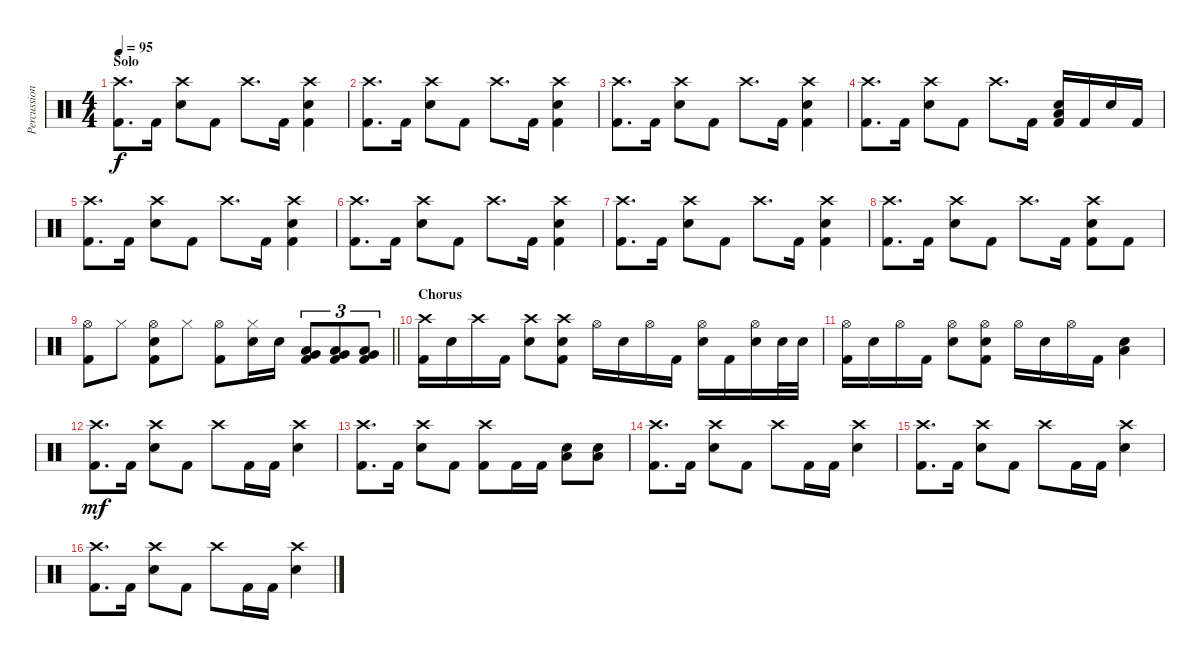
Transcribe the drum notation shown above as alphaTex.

\track ("Percussion" "Percussion") {instrument percussion}
\staff {score}
\articulation defaults
\ts (4 4)
\section ("" "Solo")
\tempo 95
\clef neutral
\ks c
("Crash high (hit)" "Kick (hit) 2").8{d dy f} "Kick (hit) 2".16 ("Crash high (hit)" "Snare (hit) 2").8 "Kick (hit) 2".8 "Crash high (hit)".8{d} "Kick (hit) 2".16 ("Crash high (hit)" "Snare (hit) 2" "Kick (hit) 2").4 |
("Crash high (hit)" "Kick (hit) 2").8{d} "Kick (hit) 2".16 ("Crash high (hit)" "Snare (hit) 2").8 "Kick (hit) 2".8 "Crash high (hit)".8{d} "Kick (hit) 2".16 ("Crash high (hit)" "Snare (hit) 2" "Kick (hit) 2").4 |
("Crash high (hit)" "Kick (hit) 2").8{d} "Kick (hit) 2".16 ("Crash high (hit)" "Snare (hit) 2").8 "Kick (hit) 2".8 "Crash high (hit)".8{d} "Kick (hit) 2".16 ("Crash high (hit)" "Snare (hit) 2" "Kick (hit) 2").4 |
("Crash high (hit)" "Kick (hit) 2").8{d} "Kick (hit) 2".16 ("Crash high (hit)" "Snare (hit) 2").8 "Kick (hit) 2".8 "Crash high (hit)".8{d} "Kick (hit) 2".16 ("Low Floor Tom (hit)" "Snare (hit) 2" "Kick (hit) 2").16 "Kick (hit) 2".16 "Snare (hit) 2".16 "Kick (hit) 2".16 |
("Crash high (hit)" "Kick (hit) 2").8{d} "Kick (hit) 2".16 ("Crash high (hit)" "Snare (hit) 2").8 "Kick (hit) 2".8 "Crash high (hit)".8{d} "Kick (hit) 2".16 ("Crash high (hit)" "Snare (hit) 2" "Kick (hit) 2").4 |
("Crash high (hit)" "Kick (hit) 2").8{d} "Kick (hit) 2".16 ("Crash high (hit)" "Snare (hit) 2").8 "Kick (hit) 2".8 "Crash high (hit)".8{d} "Kick (hit) 2".16 ("Crash high (hit)" "Snare (hit) 2" "Kick (hit) 2").4 |
("Crash high (hit)" "Kick (hit) 2").8{d} "Kick (hit) 2".16 ("Crash high (hit)" "Snare (hit) 2").8 "Kick (hit) 2".8 "Crash high (hit)".8{d} "Kick (hit) 2".16 ("Crash high (hit)" "Snare (hit) 2" "Kick (hit) 2").4 |
("Crash high (hit)" "Kick (hit) 2").8{d} "Kick (hit) 2".16 ("Crash high (hit)" "Snare (hit) 2").8 "Kick (hit) 2".8 "Crash high (hit)".8{d} "Kick (hit) 2".16 ("Crash high (hit)" "Snare (hit) 2" "Kick (hit) 2").8 "Kick (hit) 2".8 |
\barLineRight lightlight
("Hi-Hat (open)" "Kick (hit) 2").8 "Hi-Hat (closed)".8 ("Hi-Hat (open)" "Snare (hit) 2" "Kick (hit) 2").8 "Hi-Hat (closed)".8 ("Hi-Hat (open)" "Kick (hit) 2").8 ("Hi-Hat (closed)" "Snare (hit) 2").16 "Snare (hit) 2".16 ("Very Low Tom (hit)" "Low Floor Tom (hit)" "Kick (hit) 2").8{tu (3 2)} ("Very Low Tom (hit)" "Low Floor Tom (hit)" "Kick (hit) 2").8{tu (3 2)} ("Very Low Tom (hit)" "Low Floor Tom (hit)" "Kick (hit) 2").8{tu (3 2)} |
\section ("" "Chorus")
("Crash high (hit)" "Kick (hit) 2").16 "Snare (hit) 2".16 "Crash high (hit)".16 "Kick (hit) 2".16 ("Crash high (hit)" "Snare (hit) 2").8 ("Crash high (hit)" "Snare (hit) 2" "Kick (hit) 2").8 "Hi-Hat (open)".16 "Snare (hit) 2".16 "Hi-Hat (open)".16 "Kick (hit) 2".16 ("Hi-Hat (open)" "Snare (hit) 2").16 "Kick (hit) 2".16 ("Hi-Hat (open)" "Snare (hit) 2").16 "Snare (hit) 2".32 "Snare (hit) 2".32 |
("Hi-Hat (open)" "Kick (hit) 2").16 "Snare (hit) 2".16 "Hi-Hat (open)".16 "Kick (hit) 2".16 ("Hi-Hat (open)" "Snare (hit) 2").8 ("Hi-Hat (open)" "Snare (hit) 2" "Kick (hit) 2").8 "Hi-Hat (open)".16 "Snare (hit) 2".16 "Hi-Hat (open)".16 "Kick (hit) 2".16 ("Low Floor Tom (hit)" "Snare (hit) 2").4 |
("Crash high (hit)" "Kick (hit) 2").8{d dy mf} "Kick (hit) 2".16 ("Crash high (hit)" "Snare (hit) 2").8 "Kick (hit) 2".8 "Crash high (hit)".8 "Kick (hit) 2".16 "Kick (hit) 2".16 ("Crash high (hit)" "Snare (hit) 2").4 |
("Crash high (hit)" "Kick (hit) 2").8{d} "Kick (hit) 2".16 ("Crash high (hit)" "Snare (hit) 2").8 "Kick (hit) 2".8 ("Crash high (hit)" "Kick (hit) 2").8 "Kick (hit) 2".16 "Kick (hit) 2".16 ("Low Floor Tom (hit)" "Snare (hit) 2").8 ("Low Floor Tom (hit)" "Snare (hit) 2").8 |
("Crash high (hit)" "Kick (hit) 2").8{d} "Kick (hit) 2".16 ("Crash high (hit)" "Snare (hit) 2").8 "Kick (hit) 2".8 "Crash high (hit)".8 "Kick (hit) 2".16 "Kick (hit) 2".16 ("Crash high (hit)" "Snare (hit) 2").4 |
("Crash high (hit)" "Kick (hit) 2").8{d} "Kick (hit) 2".16 ("Crash high (hit)" "Snare (hit) 2").8 "Kick (hit) 2".8 "Crash high (hit)".8 "Kick (hit) 2".16 "Kick (hit) 2".16 ("Crash high (hit)" "Snare (hit) 2").4 |
("Crash high (hit)" "Kick (hit) 2").8{d} "Kick (hit) 2".16 ("Crash high (hit)" "Snare (hit) 2").8 "Kick (hit) 2".8 "Crash high (hit)".8 "Kick (hit) 2".16 "Kick (hit) 2".16 ("Crash high (hit)" "Snare (hit) 2").4
